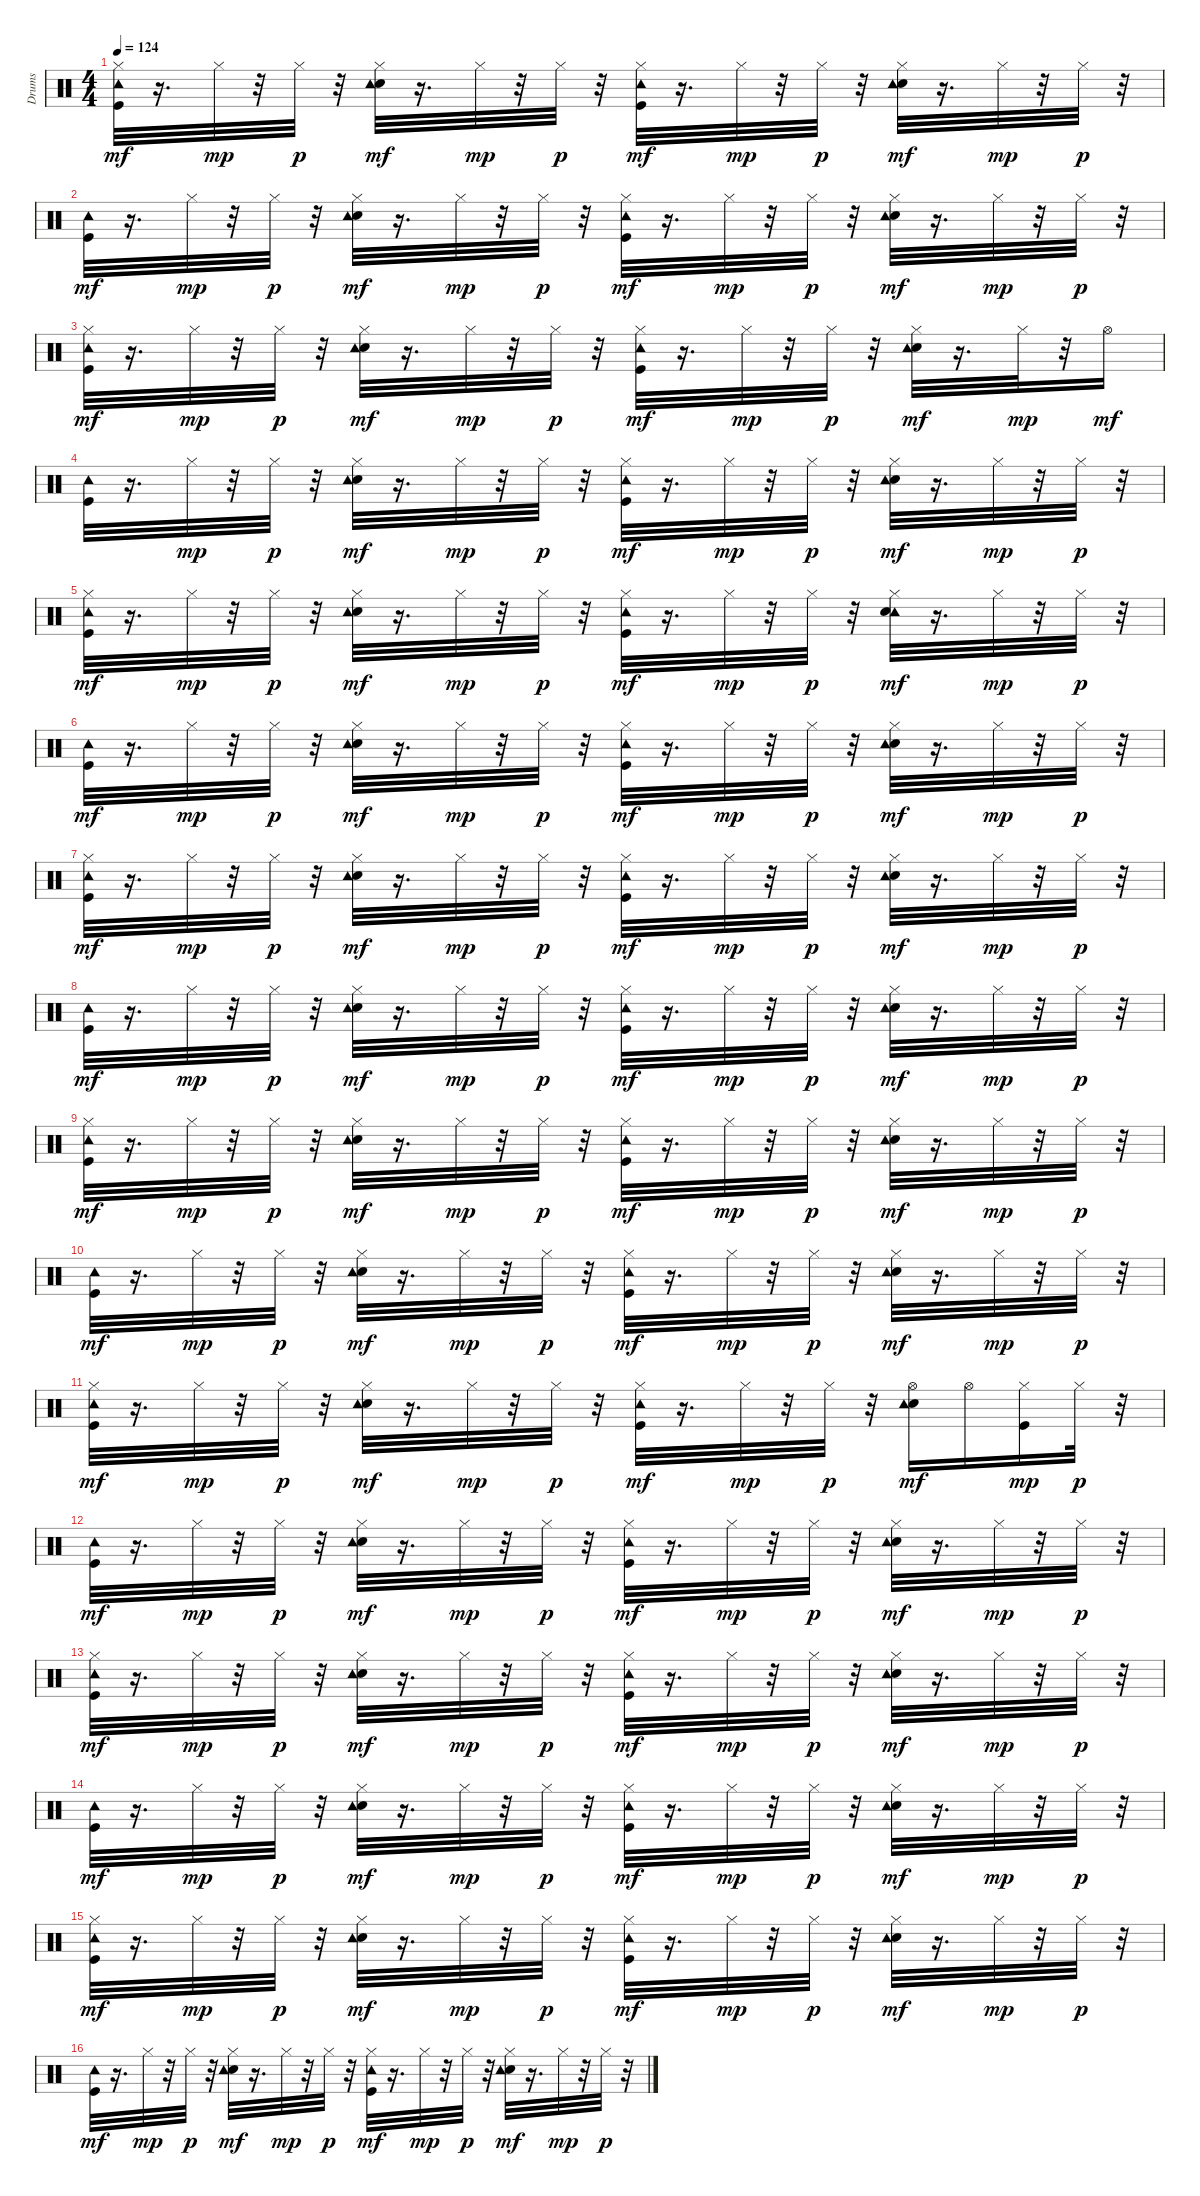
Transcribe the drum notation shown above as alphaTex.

\track ("Drums" "Drums") {instrument percussion}
\staff {score}
\articulation defaults
\ts (4 4)
\tempo 124
\clef neutral
\ks c
("Tambourine (hit)" "Hi-Hat (closed)" "Kick (hit)").32{dy mf} r.16{d} "Hi-Hat (closed)".32{dy mp} r.32 "Hi-Hat (closed)".32{dy p} r.32 ("Snare (hit) 2" "Tambourine (hit)" "Hi-Hat (closed)").32{dy mf} r.16{d} "Hi-Hat (closed)".32{dy mp} r.32 "Hi-Hat (closed)".32{dy p} r.32 ("Kick (hit)" "Tambourine (hit)" "Hi-Hat (closed)").32{dy mf} r.16{d} "Hi-Hat (closed)".32{dy mp} r.32 "Hi-Hat (closed)".32{dy p} r.32 ("Hi-Hat (closed)" "Snare (hit) 2" "Tambourine (hit)").32{dy mf} r.16{d} "Hi-Hat (closed)".32{dy mp} r.32 "Hi-Hat (closed)".32{dy p} r.32 |
("Tambourine (hit)" "Kick (hit)").32{dy mf} r.16{d} "Hi-Hat (closed)".32{dy mp} r.32 "Hi-Hat (closed)".32{dy p} r.32 ("Snare (hit) 2" "Tambourine (hit)" "Hi-Hat (closed)").32{dy mf} r.16{d} "Hi-Hat (closed)".32{dy mp} r.32 "Hi-Hat (closed)".32{dy p} r.32 ("Hi-Hat (closed)" "Kick (hit)" "Tambourine (hit)").32{dy mf} r.16{d} "Hi-Hat (closed)".32{dy mp} r.32 "Hi-Hat (closed)".32{dy p} r.32 ("Snare (hit) 2" "Tambourine (hit)" "Hi-Hat (closed)").32{dy mf} r.16{d} "Hi-Hat (closed)".32{dy mp} r.32 "Hi-Hat (closed)".32{dy p} r.32 |
("Tambourine (hit)" "Hi-Hat (closed)" "Kick (hit)").32{dy mf} r.16{d} "Hi-Hat (closed)".32{dy mp} r.32 "Hi-Hat (closed)".32{dy p} r.32 ("Snare (hit) 2" "Tambourine (hit)" "Hi-Hat (closed)").32{dy mf} r.16{d} "Hi-Hat (closed)".32{dy mp} r.32 "Hi-Hat (closed)".32{dy p} r.32 ("Kick (hit)" "Tambourine (hit)" "Hi-Hat (closed)").32{dy mf} r.16{d} "Hi-Hat (closed)".32{dy mp} r.32 "Hi-Hat (closed)".32{dy p} r.32 ("Hi-Hat (closed)" "Snare (hit) 2" "Tambourine (hit)").32{dy mf} r.16{d} "Hi-Hat (closed)".32{dy mp} r.32 "Hi-Hat (open)".16{dy mf} |
("Tambourine (hit)" "Kick (hit)").32 r.16{d} "Hi-Hat (closed)".32{dy mp} r.32 "Hi-Hat (closed)".32{dy p} r.32 ("Snare (hit) 2" "Tambourine (hit)" "Hi-Hat (closed)").32{dy mf} r.16{d} "Hi-Hat (closed)".32{dy mp} r.32 "Hi-Hat (closed)".32{dy p} r.32 ("Hi-Hat (closed)" "Kick (hit)" "Tambourine (hit)").32{dy mf} r.16{d} "Hi-Hat (closed)".32{dy mp} r.32 "Hi-Hat (closed)".32{dy p} r.32 ("Snare (hit) 2" "Tambourine (hit)" "Hi-Hat (closed)").32{dy mf} r.16{d} "Hi-Hat (closed)".32{dy mp} r.32 "Hi-Hat (closed)".32{dy p} r.32 |
("Tambourine (hit)" "Hi-Hat (closed)" "Kick (hit)").32{dy mf} r.16{d} "Hi-Hat (closed)".32{dy mp} r.32 "Hi-Hat (closed)".32{dy p} r.32 ("Snare (hit) 2" "Tambourine (hit)" "Hi-Hat (closed)").32{dy mf} r.16{d} "Hi-Hat (closed)".32{dy mp} r.32 "Hi-Hat (closed)".32{dy p} r.32 ("Kick (hit)" "Tambourine (hit)" "Hi-Hat (closed)").32{dy mf} r.16{d} "Hi-Hat (closed)".32{dy mp} r.32 "Hi-Hat (closed)".32{dy p} r.32 ("Hi-Hat (closed)" "Tambourine (hit)" "Snare (hit) 2").32{dy mf} r.16{d} "Hi-Hat (closed)".32{dy mp} r.32 "Hi-Hat (closed)".32{dy p} r.32 |
("Tambourine (hit)" "Kick (hit)").32{dy mf} r.16{d} "Hi-Hat (closed)".32{dy mp} r.32 "Hi-Hat (closed)".32{dy p} r.32 ("Snare (hit) 2" "Tambourine (hit)" "Hi-Hat (closed)").32{dy mf} r.16{d} "Hi-Hat (closed)".32{dy mp} r.32 "Hi-Hat (closed)".32{dy p} r.32 ("Kick (hit)" "Tambourine (hit)" "Hi-Hat (closed)").32{dy mf} r.16{d} "Hi-Hat (closed)".32{dy mp} r.32 "Hi-Hat (closed)".32{dy p} r.32 ("Snare (hit) 2" "Tambourine (hit)" "Hi-Hat (closed)").32{dy mf} r.16{d} "Hi-Hat (closed)".32{dy mp} r.32 "Hi-Hat (closed)".32{dy p} r.32 |
("Tambourine (hit)" "Hi-Hat (closed)" "Kick (hit)").32{dy mf} r.16{d} "Hi-Hat (closed)".32{dy mp} r.32 "Hi-Hat (closed)".32{dy p} r.32 ("Hi-Hat (closed)" "Snare (hit) 2" "Tambourine (hit)").32{dy mf} r.16{d} "Hi-Hat (closed)".32{dy mp} r.32 "Hi-Hat (closed)".32{dy p} r.32 ("Kick (hit)" "Tambourine (hit)" "Hi-Hat (closed)").32{dy mf} r.16{d} "Hi-Hat (closed)".32{dy mp} r.32 "Hi-Hat (closed)".32{dy p} r.32 ("Snare (hit) 2" "Tambourine (hit)" "Hi-Hat (closed)").32{dy mf} r.16{d} "Hi-Hat (closed)".32{dy mp} r.32 "Hi-Hat (closed)".32{dy p} r.32 |
("Tambourine (hit)" "Kick (hit)").32{dy mf} r.16{d} "Hi-Hat (closed)".32{dy mp} r.32 "Hi-Hat (closed)".32{dy p} r.32 ("Snare (hit) 2" "Tambourine (hit)" "Hi-Hat (closed)").32{dy mf} r.16{d} "Hi-Hat (closed)".32{dy mp} r.32 "Hi-Hat (closed)".32{dy p} r.32 ("Kick (hit)" "Tambourine (hit)" "Hi-Hat (closed)").32{dy mf} r.16{d} "Hi-Hat (closed)".32{dy mp} r.32 "Hi-Hat (closed)".32{dy p} r.32 ("Snare (hit) 2" "Tambourine (hit)" "Hi-Hat (closed)").32{dy mf} r.16{d} "Hi-Hat (closed)".32{dy mp} r.32 "Hi-Hat (closed)".32{dy p} r.32 |
("Tambourine (hit)" "Hi-Hat (closed)" "Kick (hit)").32{dy mf} r.16{d} "Hi-Hat (closed)".32{dy mp} r.32 "Hi-Hat (closed)".32{dy p} r.32 ("Hi-Hat (closed)" "Snare (hit) 2" "Tambourine (hit)").32{dy mf} r.16{d} "Hi-Hat (closed)".32{dy mp} r.32 "Hi-Hat (closed)".32{dy p} r.32 ("Kick (hit)" "Tambourine (hit)" "Hi-Hat (closed)").32{dy mf} r.16{d} "Hi-Hat (closed)".32{dy mp} r.32 "Hi-Hat (closed)".32{dy p} r.32 ("Snare (hit) 2" "Tambourine (hit)" "Hi-Hat (closed)").32{dy mf} r.16{d} "Hi-Hat (closed)".32{dy mp} r.32 "Hi-Hat (closed)".32{dy p} r.32 |
("Tambourine (hit)" "Kick (hit)").32{dy mf} r.16{d} "Hi-Hat (closed)".32{dy mp} r.32 "Hi-Hat (closed)".32{dy p} r.32 ("Snare (hit) 2" "Tambourine (hit)" "Hi-Hat (closed)").32{dy mf} r.16{d} "Hi-Hat (closed)".32{dy mp} r.32 "Hi-Hat (closed)".32{dy p} r.32 ("Kick (hit)" "Tambourine (hit)" "Hi-Hat (closed)").32{dy mf} r.16{d} "Hi-Hat (closed)".32{dy mp} r.32 "Hi-Hat (closed)".32{dy p} r.32 ("Snare (hit) 2" "Tambourine (hit)" "Hi-Hat (closed)").32{dy mf} r.16{d} "Hi-Hat (closed)".32{dy mp} r.32 "Hi-Hat (closed)".32{dy p} r.32 |
("Tambourine (hit)" "Hi-Hat (closed)" "Kick (hit)").32{dy mf} r.16{d} "Hi-Hat (closed)".32{dy mp} r.32 "Hi-Hat (closed)".32{dy p} r.32 ("Hi-Hat (closed)" "Snare (hit) 2" "Tambourine (hit)").32{dy mf} r.16{d} "Hi-Hat (closed)".32{dy mp} r.32 "Hi-Hat (closed)".32{dy p} r.32 ("Kick (hit)" "Tambourine (hit)" "Hi-Hat (closed)").32{dy mf} r.16{d} "Hi-Hat (closed)".32{dy mp} r.32 "Hi-Hat (closed)".32{dy p} r.32 ("Hi-Hat (open)" "Snare (hit) 2" "Tambourine (hit)").16{dy mf} "Hi-Hat (open)".16 ("Kick (hit)" "Hi-Hat (closed)").16{dy mp} "Hi-Hat (closed)".32{dy p} r.32 |
("Tambourine (hit)" "Kick (hit)").32{dy mf} r.16{d} "Hi-Hat (closed)".32{dy mp} r.32 "Hi-Hat (closed)".32{dy p} r.32 ("Snare (hit) 2" "Tambourine (hit)" "Hi-Hat (closed)").32{dy mf} r.16{d} "Hi-Hat (closed)".32{dy mp} r.32 "Hi-Hat (closed)".32{dy p} r.32 ("Hi-Hat (closed)" "Kick (hit)" "Tambourine (hit)").32{dy mf} r.16{d} "Hi-Hat (closed)".32{dy mp} r.32 "Hi-Hat (closed)".32{dy p} r.32 ("Snare (hit) 2" "Tambourine (hit)" "Hi-Hat (closed)").32{dy mf} r.16{d} "Hi-Hat (closed)".32{dy mp} r.32 "Hi-Hat (closed)".32{dy p} r.32 |
("Tambourine (hit)" "Hi-Hat (closed)" "Kick (hit)").32{dy mf} r.16{d} "Hi-Hat (closed)".32{dy mp} r.32 "Hi-Hat (closed)".32{dy p} r.32 ("Snare (hit) 2" "Tambourine (hit)" "Hi-Hat (closed)").32{dy mf} r.16{d} "Hi-Hat (closed)".32{dy mp} r.32 "Hi-Hat (closed)".32{dy p} r.32 ("Kick (hit)" "Tambourine (hit)" "Hi-Hat (closed)").32{dy mf} r.16{d} "Hi-Hat (closed)".32{dy mp} r.32 "Hi-Hat (closed)".32{dy p} r.32 ("Hi-Hat (closed)" "Snare (hit) 2" "Tambourine (hit)").32{dy mf} r.16{d} "Hi-Hat (closed)".32{dy mp} r.32 "Hi-Hat (closed)".32{dy p} r.32 |
("Tambourine (hit)" "Kick (hit)").32{dy mf} r.16{d} "Hi-Hat (closed)".32{dy mp} r.32 "Hi-Hat (closed)".32{dy p} r.32 ("Snare (hit) 2" "Tambourine (hit)" "Hi-Hat (closed)").32{dy mf} r.16{d} "Hi-Hat (closed)".32{dy mp} r.32 "Hi-Hat (closed)".32{dy p} r.32 ("Hi-Hat (closed)" "Kick (hit)" "Tambourine (hit)").32{dy mf} r.16{d} "Hi-Hat (closed)".32{dy mp} r.32 "Hi-Hat (closed)".32{dy p} r.32 ("Snare (hit) 2" "Tambourine (hit)" "Hi-Hat (closed)").32{dy mf} r.16{d} "Hi-Hat (closed)".32{dy mp} r.32 "Hi-Hat (closed)".32{dy p} r.32 |
("Tambourine (hit)" "Hi-Hat (closed)" "Kick (hit)").32{dy mf} r.16{d} "Hi-Hat (closed)".32{dy mp} r.32 "Hi-Hat (closed)".32{dy p} r.32 ("Snare (hit) 2" "Tambourine (hit)" "Hi-Hat (closed)").32{dy mf} r.16{d} "Hi-Hat (closed)".32{dy mp} r.32 "Hi-Hat (closed)".32{dy p} r.32 ("Kick (hit)" "Tambourine (hit)" "Hi-Hat (closed)").32{dy mf} r.16{d} "Hi-Hat (closed)".32{dy mp} r.32 "Hi-Hat (closed)".32{dy p} r.32 ("Hi-Hat (closed)" "Snare (hit) 2" "Tambourine (hit)").32{dy mf} r.16{d} "Hi-Hat (closed)".32{dy mp} r.32 "Hi-Hat (closed)".32{dy p} r.32 |
("Tambourine (hit)" "Kick (hit)").32{dy mf} r.16{d} "Hi-Hat (closed)".32{dy mp} r.32 "Hi-Hat (closed)".32{dy p} r.32 ("Snare (hit) 2" "Tambourine (hit)" "Hi-Hat (closed)").32{dy mf} r.16{d} "Hi-Hat (closed)".32{dy mp} r.32 "Hi-Hat (closed)".32{dy p} r.32 ("Hi-Hat (closed)" "Tambourine (hit)" "Kick (hit)").32{dy mf} r.16{d} "Hi-Hat (closed)".32{dy mp} r.32 "Hi-Hat (closed)".32{dy p} r.32 ("Snare (hit) 2" "Tambourine (hit)" "Hi-Hat (closed)").32{dy mf} r.16{d} "Hi-Hat (closed)".32{dy mp} r.32 "Hi-Hat (closed)".32{dy p} r.32
